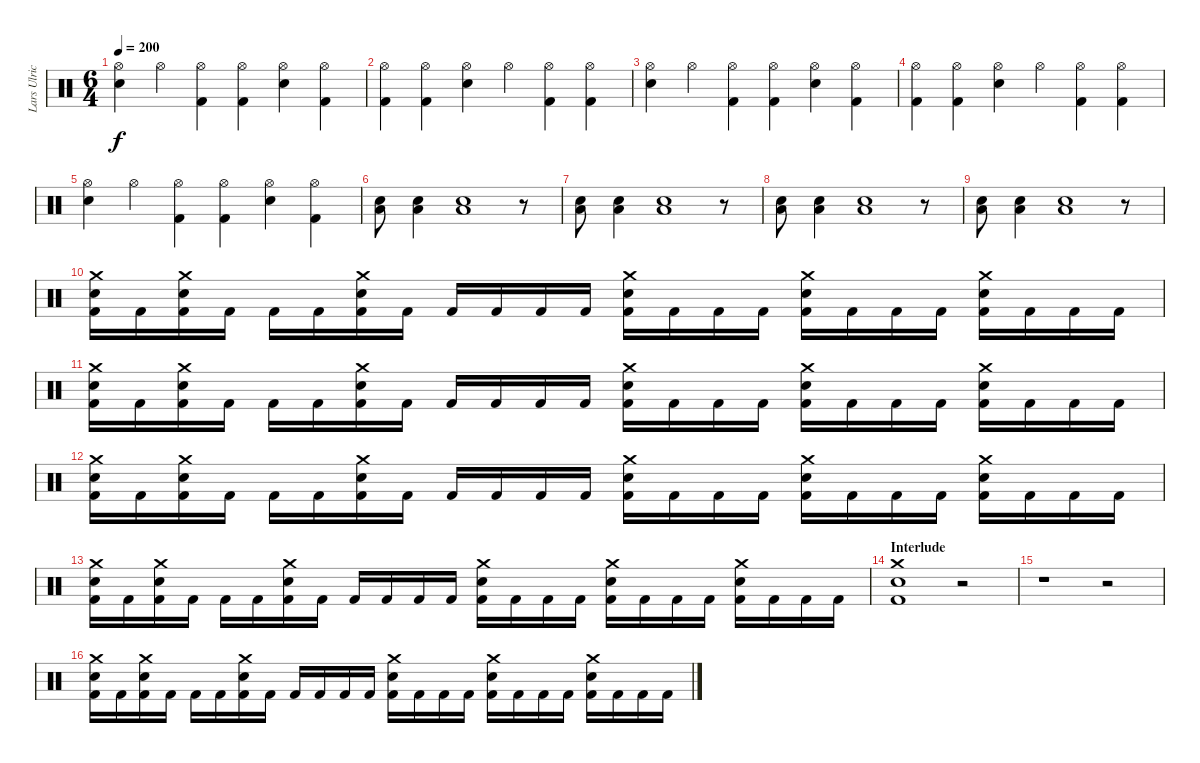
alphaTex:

\track ("Lars Ulrich" "Lars Ulric") {instrument percussion}
\staff {score}
\articulation defaults
\ts (6 4)
\tempo 200
\clef neutral
\ks c
("Hi-Hat (open)" "Electric Snare (hit)").4{dy f} "Hi-Hat (open)".4 ("Hi-Hat (open)" "Kick (hit) 2").4 ("Hi-Hat (open)" "Kick (hit) 2").4 ("Hi-Hat (open)" "Electric Snare (hit)").4 ("Hi-Hat (open)" "Kick (hit) 2").4 |
("Hi-Hat (open)" "Kick (hit) 2").4 ("Hi-Hat (open)" "Kick (hit) 2").4 ("Hi-Hat (open)" "Electric Snare (hit)").4 "Hi-Hat (open)".4 ("Hi-Hat (open)" "Kick (hit) 2").4 ("Hi-Hat (open)" "Kick (hit) 2").4 |
("Hi-Hat (open)" "Electric Snare (hit)").4 "Hi-Hat (open)".4 ("Hi-Hat (open)" "Kick (hit) 2").4 ("Hi-Hat (open)" "Kick (hit) 2").4 ("Hi-Hat (open)" "Electric Snare (hit)").4 ("Hi-Hat (open)" "Kick (hit) 2").4 |
("Hi-Hat (open)" "Kick (hit) 2").4 ("Hi-Hat (open)" "Kick (hit) 2").4 ("Hi-Hat (open)" "Electric Snare (hit)").4 "Hi-Hat (open)".4 ("Hi-Hat (open)" "Kick (hit) 2").4 ("Hi-Hat (open)" "Kick (hit) 2").4 |
("Hi-Hat (open)" "Electric Snare (hit)").4 "Hi-Hat (open)".4 ("Hi-Hat (open)" "Kick (hit) 2").4 ("Hi-Hat (open)" "Kick (hit) 2").4 ("Hi-Hat (open)" "Electric Snare (hit)").4 ("Hi-Hat (open)" "Kick (hit) 2").4 |
("Electric Snare (hit)" "Low Floor Tom (hit)").8 ("Electric Snare (hit)" "Low Floor Tom (hit)").4 ("Electric Snare (hit)" "Low Floor Tom (hit)").1 r.8 |
("Electric Snare (hit)" "Low Floor Tom (hit)").8 ("Electric Snare (hit)" "Low Floor Tom (hit)").4 ("Electric Snare (hit)" "Low Floor Tom (hit)").1 r.8 |
("Electric Snare (hit)" "Low Floor Tom (hit)").8 ("Electric Snare (hit)" "Low Floor Tom (hit)").4 ("Electric Snare (hit)" "Low Floor Tom (hit)").1 r.8 |
("Electric Snare (hit)" "Low Floor Tom (hit)").8 ("Electric Snare (hit)" "Low Floor Tom (hit)").4 ("Electric Snare (hit)" "Low Floor Tom (hit)").1 r.8 |
("Crash medium (hit)" "Electric Snare (hit)" "Kick (hit) 2").16 "Kick (hit) 2".16 ("Crash medium (hit)" "Electric Snare (hit)" "Kick (hit) 2").16 "Kick (hit) 2".16 "Kick (hit) 2".16 "Kick (hit) 2".16 ("Crash medium (hit)" "Electric Snare (hit)" "Kick (hit) 2").16 "Kick (hit) 2".16 "Kick (hit) 2".16 "Kick (hit) 2".16 "Kick (hit) 2".16 "Kick (hit) 2".16 ("Crash medium (hit)" "Electric Snare (hit)" "Kick (hit) 2").16 "Kick (hit) 2".16 "Kick (hit) 2".16 "Kick (hit) 2".16 ("Crash medium (hit)" "Electric Snare (hit)" "Kick (hit) 2").16 "Kick (hit) 2".16 "Kick (hit) 2".16 "Kick (hit) 2".16 ("Crash medium (hit)" "Electric Snare (hit)" "Kick (hit) 2").16 "Kick (hit) 2".16 "Kick (hit) 2".16 "Kick (hit) 2".16 |
("Crash medium (hit)" "Electric Snare (hit)" "Kick (hit) 2").16 "Kick (hit) 2".16 ("Crash medium (hit)" "Electric Snare (hit)" "Kick (hit) 2").16 "Kick (hit) 2".16 "Kick (hit) 2".16 "Kick (hit) 2".16 ("Crash medium (hit)" "Electric Snare (hit)" "Kick (hit) 2").16 "Kick (hit) 2".16 "Kick (hit) 2".16 "Kick (hit) 2".16 "Kick (hit) 2".16 "Kick (hit) 2".16 ("Crash medium (hit)" "Electric Snare (hit)" "Kick (hit) 2").16 "Kick (hit) 2".16 "Kick (hit) 2".16 "Kick (hit) 2".16 ("Crash medium (hit)" "Electric Snare (hit)" "Kick (hit) 2").16 "Kick (hit) 2".16 "Kick (hit) 2".16 "Kick (hit) 2".16 ("Crash medium (hit)" "Electric Snare (hit)" "Kick (hit) 2").16 "Kick (hit) 2".16 "Kick (hit) 2".16 "Kick (hit) 2".16 |
("Crash medium (hit)" "Electric Snare (hit)" "Kick (hit) 2").16 "Kick (hit) 2".16 ("Crash medium (hit)" "Electric Snare (hit)" "Kick (hit) 2").16 "Kick (hit) 2".16 "Kick (hit) 2".16 "Kick (hit) 2".16 ("Crash medium (hit)" "Electric Snare (hit)" "Kick (hit) 2").16 "Kick (hit) 2".16 "Kick (hit) 2".16 "Kick (hit) 2".16 "Kick (hit) 2".16 "Kick (hit) 2".16 ("Crash medium (hit)" "Electric Snare (hit)" "Kick (hit) 2").16 "Kick (hit) 2".16 "Kick (hit) 2".16 "Kick (hit) 2".16 ("Crash medium (hit)" "Electric Snare (hit)" "Kick (hit) 2").16 "Kick (hit) 2".16 "Kick (hit) 2".16 "Kick (hit) 2".16 ("Crash medium (hit)" "Electric Snare (hit)" "Kick (hit) 2").16 "Kick (hit) 2".16 "Kick (hit) 2".16 "Kick (hit) 2".16 |
("Crash medium (hit)" "Electric Snare (hit)" "Kick (hit) 2").16 "Kick (hit) 2".16 ("Crash medium (hit)" "Electric Snare (hit)" "Kick (hit) 2").16 "Kick (hit) 2".16 "Kick (hit) 2".16 "Kick (hit) 2".16 ("Crash medium (hit)" "Electric Snare (hit)" "Kick (hit) 2").16 "Kick (hit) 2".16 "Kick (hit) 2".16 "Kick (hit) 2".16 "Kick (hit) 2".16 "Kick (hit) 2".16 ("Crash medium (hit)" "Electric Snare (hit)" "Kick (hit) 2").16 "Kick (hit) 2".16 "Kick (hit) 2".16 "Kick (hit) 2".16 ("Crash medium (hit)" "Electric Snare (hit)" "Kick (hit) 2").16 "Kick (hit) 2".16 "Kick (hit) 2".16 "Kick (hit) 2".16 ("Crash medium (hit)" "Electric Snare (hit)" "Kick (hit) 2").16 "Kick (hit) 2".16 "Kick (hit) 2".16 "Kick (hit) 2".16 |
\section ("" "Interlude")
("Crash medium (hit)" "Electric Snare (hit)" "Kick (hit) 2").1 r.2 |
r.1 r.2 |
("Crash medium (hit)" "Electric Snare (hit)" "Kick (hit) 2").16 "Kick (hit) 2".16 ("Crash medium (hit)" "Electric Snare (hit)" "Kick (hit) 2").16 "Kick (hit) 2".16 "Kick (hit) 2".16 "Kick (hit) 2".16 ("Crash medium (hit)" "Electric Snare (hit)" "Kick (hit) 2").16 "Kick (hit) 2".16 "Kick (hit) 2".16 "Kick (hit) 2".16 "Kick (hit) 2".16 "Kick (hit) 2".16 ("Crash medium (hit)" "Electric Snare (hit)" "Kick (hit) 2").16 "Kick (hit) 2".16 "Kick (hit) 2".16 "Kick (hit) 2".16 ("Crash medium (hit)" "Electric Snare (hit)" "Kick (hit) 2").16 "Kick (hit) 2".16 "Kick (hit) 2".16 "Kick (hit) 2".16 ("Crash medium (hit)" "Electric Snare (hit)" "Kick (hit) 2").16 "Kick (hit) 2".16 "Kick (hit) 2".16 "Kick (hit) 2".16
